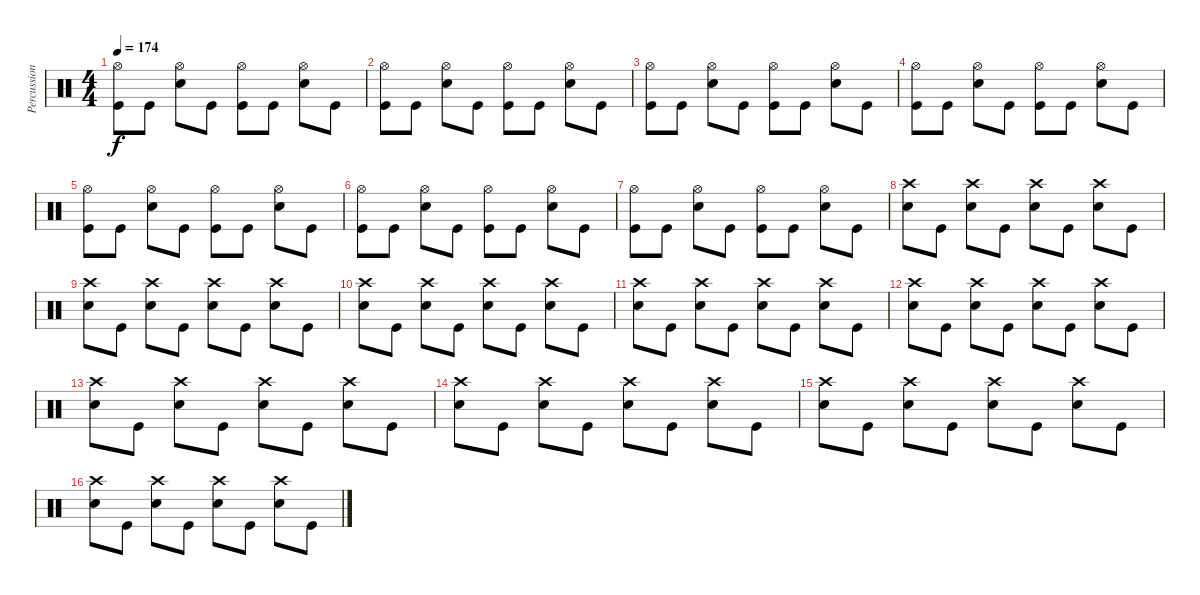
\track ("Percussion" "Percussion") {instrument percussion}
\staff {score}
\articulation defaults
\ts (4 4)
\tempo 174
\clef neutral
\ks c
("Hi-Hat (open)" "Kick (hit)").8{dy f} "Kick (hit)".8 ("Hi-Hat (open)" "Electric Snare (hit)").8 "Kick (hit)".8 ("Hi-Hat (open)" "Kick (hit)").8 "Kick (hit)".8 ("Hi-Hat (open)" "Electric Snare (hit)").8 "Kick (hit)".8 |
("Hi-Hat (open)" "Kick (hit)").8 "Kick (hit)".8 ("Hi-Hat (open)" "Electric Snare (hit)").8 "Kick (hit)".8 ("Hi-Hat (open)" "Kick (hit)").8 "Kick (hit)".8 ("Hi-Hat (open)" "Electric Snare (hit)").8 "Kick (hit)".8 |
("Hi-Hat (open)" "Kick (hit)").8 "Kick (hit)".8 ("Hi-Hat (open)" "Electric Snare (hit)").8 "Kick (hit)".8 ("Hi-Hat (open)" "Kick (hit)").8 "Kick (hit)".8 ("Hi-Hat (open)" "Electric Snare (hit)").8 "Kick (hit)".8 |
("Hi-Hat (open)" "Kick (hit)").8 "Kick (hit)".8 ("Hi-Hat (open)" "Electric Snare (hit)").8 "Kick (hit)".8 ("Hi-Hat (open)" "Kick (hit)").8 "Kick (hit)".8 ("Hi-Hat (open)" "Electric Snare (hit)").8 "Kick (hit)".8 |
("Hi-Hat (open)" "Kick (hit)").8 "Kick (hit)".8 ("Hi-Hat (open)" "Electric Snare (hit)").8 "Kick (hit)".8 ("Hi-Hat (open)" "Kick (hit)").8 "Kick (hit)".8 ("Hi-Hat (open)" "Electric Snare (hit)").8 "Kick (hit)".8 |
("Hi-Hat (open)" "Kick (hit)").8 "Kick (hit)".8 ("Hi-Hat (open)" "Electric Snare (hit)").8 "Kick (hit)".8 ("Hi-Hat (open)" "Kick (hit)").8 "Kick (hit)".8 ("Hi-Hat (open)" "Electric Snare (hit)").8 "Kick (hit)".8 |
("Hi-Hat (open)" "Kick (hit)").8 "Kick (hit)".8 ("Hi-Hat (open)" "Electric Snare (hit)").8 "Kick (hit)".8 ("Hi-Hat (open)" "Kick (hit)").8 "Kick (hit)".8 ("Hi-Hat (open)" "Electric Snare (hit)").8 "Kick (hit)".8 |
("Crash high (hit)" "Electric Snare (hit)").8 "Kick (hit)".8 ("Crash high (hit)" "Electric Snare (hit)").8 "Kick (hit)".8 ("Crash high (hit)" "Electric Snare (hit)").8 "Kick (hit)".8 ("Crash high (hit)" "Electric Snare (hit)").8 "Kick (hit)".8 |
("Crash high (hit)" "Electric Snare (hit)").8 "Kick (hit)".8 ("Crash high (hit)" "Electric Snare (hit)").8 "Kick (hit)".8 ("Crash high (hit)" "Electric Snare (hit)").8 "Kick (hit)".8 ("Crash high (hit)" "Electric Snare (hit)").8 "Kick (hit)".8 |
("Crash high (hit)" "Electric Snare (hit)").8 "Kick (hit)".8 ("Crash high (hit)" "Electric Snare (hit)").8 "Kick (hit)".8 ("Crash high (hit)" "Electric Snare (hit)").8 "Kick (hit)".8 ("Crash high (hit)" "Electric Snare (hit)").8 "Kick (hit)".8 |
("Crash high (hit)" "Electric Snare (hit)").8 "Kick (hit)".8 ("Crash high (hit)" "Electric Snare (hit)").8 "Kick (hit)".8 ("Crash high (hit)" "Electric Snare (hit)").8 "Kick (hit)".8 ("Crash high (hit)" "Electric Snare (hit)").8 "Kick (hit)".8 |
("Crash high (hit)" "Electric Snare (hit)").8 "Kick (hit)".8 ("Crash high (hit)" "Electric Snare (hit)").8 "Kick (hit)".8 ("Crash high (hit)" "Electric Snare (hit)").8 "Kick (hit)".8 ("Crash high (hit)" "Electric Snare (hit)").8 "Kick (hit)".8 |
("Crash high (hit)" "Electric Snare (hit)").8 "Kick (hit)".8 ("Crash high (hit)" "Electric Snare (hit)").8 "Kick (hit)".8 ("Crash high (hit)" "Electric Snare (hit)").8 "Kick (hit)".8 ("Crash high (hit)" "Electric Snare (hit)").8 "Kick (hit)".8 |
("Crash high (hit)" "Electric Snare (hit)").8 "Kick (hit)".8 ("Crash high (hit)" "Electric Snare (hit)").8 "Kick (hit)".8 ("Crash high (hit)" "Electric Snare (hit)").8 "Kick (hit)".8 ("Crash high (hit)" "Electric Snare (hit)").8 "Kick (hit)".8 |
("Crash high (hit)" "Electric Snare (hit)").8 "Kick (hit)".8 ("Crash high (hit)" "Electric Snare (hit)").8 "Kick (hit)".8 ("Crash high (hit)" "Electric Snare (hit)").8 "Kick (hit)".8 ("Crash high (hit)" "Electric Snare (hit)").8 "Kick (hit)".8 |
("Crash high (hit)" "Electric Snare (hit)").8 "Kick (hit)".8 ("Crash high (hit)" "Electric Snare (hit)").8 "Kick (hit)".8 ("Crash high (hit)" "Electric Snare (hit)").8 "Kick (hit)".8 ("Crash high (hit)" "Electric Snare (hit)").8 "Kick (hit)".8
